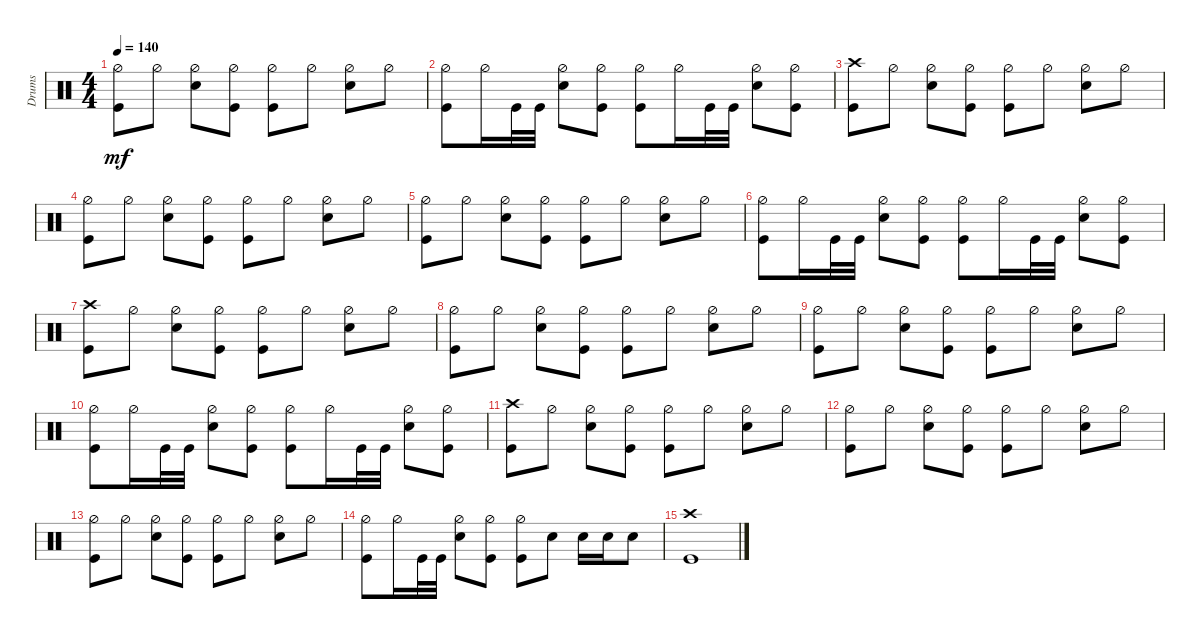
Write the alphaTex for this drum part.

\track ("Drumkit" "Drums") {instrument percussion}
\staff {score}
\articulation defaults
\ts (4 4)
\tempo 140
\clef neutral
\ks c
("Kick (hit)" "Hi-Hat (half)").8{dy mf} "Hi-Hat (half)".8 ("Snare (hit) 2" "Hi-Hat (half)").8 ("Kick (hit)" "Hi-Hat (half)").8 ("Kick (hit)" "Hi-Hat (half)").8 "Hi-Hat (half)".8 ("Snare (hit) 2" "Hi-Hat (half)").8 "Hi-Hat (half)".8 |
("Kick (hit)" "Hi-Hat (half)").8 "Hi-Hat (half)".16 "Kick (hit)".32 "Kick (hit)".32 ("Hi-Hat (half)" "Snare (hit) 2").8 ("Kick (hit)" "Hi-Hat (half)").8 ("Kick (hit)" "Hi-Hat (half)").8 "Hi-Hat (half)".16 "Kick (hit)".32 "Kick (hit)".32 ("Hi-Hat (half)" "Snare (hit) 2").8 ("Hi-Hat (half)" "Kick (hit)").8 |
("Kick (hit)" "Crash high (hit)").8 "Hi-Hat (half)".8 ("Snare (hit) 2" "Hi-Hat (half)").8 ("Kick (hit)" "Hi-Hat (half)").8 ("Kick (hit)" "Hi-Hat (half)").8 "Hi-Hat (half)".8 ("Snare (hit) 2" "Hi-Hat (half)").8 "Hi-Hat (half)".8 |
("Kick (hit)" "Hi-Hat (half)").8 "Hi-Hat (half)".8 ("Snare (hit) 2" "Hi-Hat (half)").8 ("Kick (hit)" "Hi-Hat (half)").8 ("Kick (hit)" "Hi-Hat (half)").8 "Hi-Hat (half)".8 ("Snare (hit) 2" "Hi-Hat (half)").8 "Hi-Hat (half)".8 |
("Kick (hit)" "Hi-Hat (half)").8 "Hi-Hat (half)".8 ("Snare (hit) 2" "Hi-Hat (half)").8 ("Kick (hit)" "Hi-Hat (half)").8 ("Kick (hit)" "Hi-Hat (half)").8 "Hi-Hat (half)".8 ("Snare (hit) 2" "Hi-Hat (half)").8 "Hi-Hat (half)".8 |
("Kick (hit)" "Hi-Hat (half)").8 "Hi-Hat (half)".16 "Kick (hit)".32 "Kick (hit)".32 ("Hi-Hat (half)" "Snare (hit) 2").8 ("Kick (hit)" "Hi-Hat (half)").8 ("Kick (hit)" "Hi-Hat (half)").8 "Hi-Hat (half)".16 "Kick (hit)".32 "Kick (hit)".32 ("Hi-Hat (half)" "Snare (hit) 2").8 ("Hi-Hat (half)" "Kick (hit)").8 |
("Kick (hit)" "Crash high (hit)").8 "Hi-Hat (half)".8 ("Snare (hit) 2" "Hi-Hat (half)").8 ("Kick (hit)" "Hi-Hat (half)").8 ("Kick (hit)" "Hi-Hat (half)").8 "Hi-Hat (half)".8 ("Snare (hit) 2" "Hi-Hat (half)").8 "Hi-Hat (half)".8 |
("Kick (hit)" "Hi-Hat (half)").8 "Hi-Hat (half)".8 ("Snare (hit) 2" "Hi-Hat (half)").8 ("Kick (hit)" "Hi-Hat (half)").8 ("Kick (hit)" "Hi-Hat (half)").8 "Hi-Hat (half)".8 ("Snare (hit) 2" "Hi-Hat (half)").8 "Hi-Hat (half)".8 |
("Kick (hit)" "Hi-Hat (half)").8 "Hi-Hat (half)".8 ("Snare (hit) 2" "Hi-Hat (half)").8 ("Kick (hit)" "Hi-Hat (half)").8 ("Kick (hit)" "Hi-Hat (half)").8 "Hi-Hat (half)".8 ("Snare (hit) 2" "Hi-Hat (half)").8 "Hi-Hat (half)".8 |
("Kick (hit)" "Hi-Hat (half)").8 "Hi-Hat (half)".16 "Kick (hit)".32 "Kick (hit)".32 ("Hi-Hat (half)" "Snare (hit) 2").8 ("Kick (hit)" "Hi-Hat (half)").8 ("Kick (hit)" "Hi-Hat (half)").8 "Hi-Hat (half)".16 "Kick (hit)".32 "Kick (hit)".32 ("Hi-Hat (half)" "Snare (hit) 2").8 ("Hi-Hat (half)" "Kick (hit)").8 |
("Kick (hit)" "Crash high (hit)").8 "Hi-Hat (half)".8 ("Snare (hit) 2" "Hi-Hat (half)").8 ("Kick (hit)" "Hi-Hat (half)").8 ("Kick (hit)" "Hi-Hat (half)").8 "Hi-Hat (half)".8 ("Snare (hit) 2" "Hi-Hat (half)").8 "Hi-Hat (half)".8 |
("Kick (hit)" "Hi-Hat (half)").8 "Hi-Hat (half)".8 ("Snare (hit) 2" "Hi-Hat (half)").8 ("Kick (hit)" "Hi-Hat (half)").8 ("Kick (hit)" "Hi-Hat (half)").8 "Hi-Hat (half)".8 ("Snare (hit) 2" "Hi-Hat (half)").8 "Hi-Hat (half)".8 |
("Kick (hit)" "Hi-Hat (half)").8 "Hi-Hat (half)".8 ("Snare (hit) 2" "Hi-Hat (half)").8 ("Kick (hit)" "Hi-Hat (half)").8 ("Kick (hit)" "Hi-Hat (half)").8 "Hi-Hat (half)".8 ("Snare (hit) 2" "Hi-Hat (half)").8 "Hi-Hat (half)".8 |
("Kick (hit)" "Hi-Hat (half)").8 "Hi-Hat (half)".16 "Kick (hit)".32 "Kick (hit)".32 ("Hi-Hat (half)" "Snare (hit) 2").8 ("Kick (hit)" "Hi-Hat (half)").8 ("Kick (hit)" "Hi-Hat (half)").8 "Snare (hit) 2".8 "Snare (hit) 2".16 "Snare (hit) 2".16 "Snare (hit) 2".8 |
("Kick (hit)" "Crash high (hit)").1
